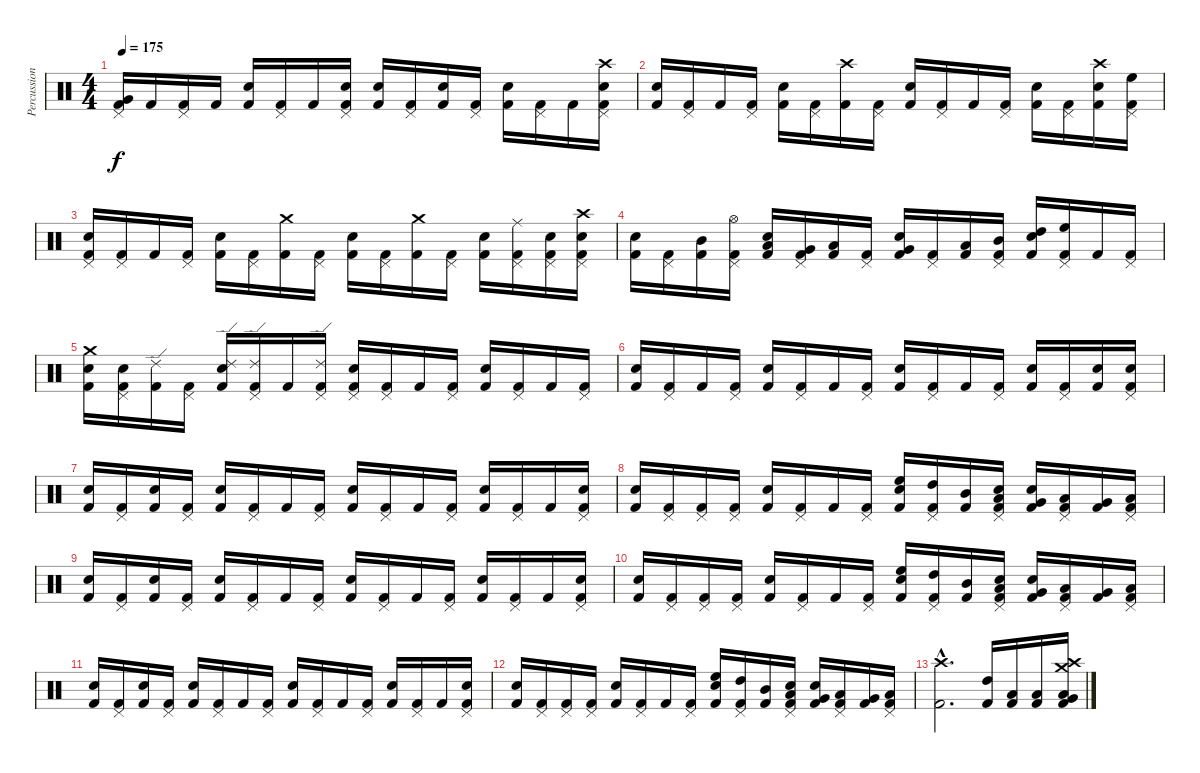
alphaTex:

\track ("Percussion" "Percussion") {instrument percussion}
\staff {score}
\articulation defaults
\ts (4 4)
\tempo 175
\clef neutral
\ks c
("Very Low Tom (hit)" "Pedal Hi-Hat (hit)" "Kick (hit) 2").16{dy f} "Kick (hit) 2".16 ("Pedal Hi-Hat (hit)" "Kick (hit) 2").16 "Kick (hit) 2".16 ("Snare (hit) 2" "Kick (hit) 2").16 ("Pedal Hi-Hat (hit)" "Kick (hit) 2").16 "Kick (hit) 2".16 ("Pedal Hi-Hat (hit)" "Snare (hit) 2" "Kick (hit) 2").16 ("Snare (hit) 2" "Kick (hit) 2").16 ("Pedal Hi-Hat (hit)" "Kick (hit) 2").16 ("Snare (hit) 2" "Kick (hit) 2").16 ("Pedal Hi-Hat (hit)" "Kick (hit) 2").16 ("Snare (hit) 2" "Kick (hit) 2").16 ("Pedal Hi-Hat (hit)" "Kick (hit) 2").16 "Kick (hit) 2".16 ("Crash high (hit)" "Pedal Hi-Hat (hit)" "Snare (hit) 2" "Kick (hit) 2").16 |
("Snare (hit) 2" "Kick (hit) 2").16 ("Pedal Hi-Hat (hit)" "Kick (hit) 2").16 "Kick (hit) 2".16 ("Pedal Hi-Hat (hit)" "Kick (hit) 2").16 ("Snare (hit) 2" "Kick (hit) 2").16 ("Pedal Hi-Hat (hit)" "Kick (hit) 2").16 ("Crash high (hit)" "Kick (hit) 2").16 ("Pedal Hi-Hat (hit)" "Kick (hit) 2").16 ("Snare (hit) 2" "Kick (hit) 2").16 ("Pedal Hi-Hat (hit)" "Kick (hit) 2").16 "Kick (hit) 2".16 ("Pedal Hi-Hat (hit)" "Kick (hit) 2").16 ("Snare (hit) 2" "Kick (hit) 2").16 ("Pedal Hi-Hat (hit)" "Kick (hit) 2").16 ("Crash high (hit)" "Snare (hit) 2" "Kick (hit) 2").16 ("High Floor Tom (hit)" "Pedal Hi-Hat (hit)" "Kick (hit) 2").16 |
("Pedal Hi-Hat (hit)" "Snare (hit) 2" "Kick (hit) 2").16 ("Pedal Hi-Hat (hit)" "Kick (hit) 2").16 "Kick (hit) 2".16 ("Pedal Hi-Hat (hit)" "Kick (hit) 2").16 ("Snare (hit) 2" "Kick (hit) 2").16 ("Pedal Hi-Hat (hit)" "Kick (hit) 2").16 ("Crash medium (hit)" "Kick (hit) 2").16 ("Pedal Hi-Hat (hit)" "Kick (hit) 2").16 ("Snare (hit) 2" "Kick (hit) 2").16 ("Pedal Hi-Hat (hit)" "Kick (hit) 2").16 ("Crash medium (hit)" "Kick (hit) 2").16 ("Pedal Hi-Hat (hit)" "Kick (hit) 2").16 ("Snare (hit) 2" "Kick (hit) 2").16 ("Ride (middle)" "Pedal Hi-Hat (hit)" "Kick (hit) 2").16 ("Pedal Hi-Hat (hit)" "Snare (hit) 2" "Kick (hit) 2").16 ("Crash high (hit)" "Pedal Hi-Hat (hit)" "Snare (hit) 2" "Kick (hit) 2").16 |
("Snare (hit) 2" "Kick (hit) 2").16 ("Pedal Hi-Hat (hit)" "Kick (hit) 2").16 ("Mid Tom (hit)" "Kick (hit) 2").16 ("Hi-Hat (open)" "Pedal Hi-Hat (hit)" "Kick (hit) 2").16 ("Low Tom (hit)" "Snare (hit) 2" "Kick (hit) 2").16 ("Very Low Tom (hit)" "Pedal Hi-Hat (hit)" "Kick (hit) 2").16 ("Low Floor Tom (hit)" "Kick (hit) 2").16 ("Pedal Hi-Hat (hit)" "Kick (hit) 2").16 ("Very Low Tom (hit)" "Snare (hit) 2" "Kick (hit) 2").16 ("Pedal Hi-Hat (hit)" "Kick (hit) 2").16 ("Low Tom (hit)" "Kick (hit) 2").16 ("Mid Tom (hit)" "Pedal Hi-Hat (hit)" "Kick (hit) 2").16 ("High Tom (hit)" "Snare (hit) 2" "Kick (hit) 2").16 ("High Floor Tom (hit)" "Pedal Hi-Hat (hit)" "Kick (hit) 2").16 "Kick (hit) 2".16 ("Pedal Hi-Hat (hit)" "Kick (hit) 2").16 |
("Crash medium (hit)" "Snare (hit) 2" "Kick (hit) 2").16 ("Pedal Hi-Hat (hit)" "Snare (hit) 2" "Kick (hit) 2").16 ("Ride (edge) 2" "Kick (hit) 2").16 ("Pedal Hi-Hat (hit)" "Kick (hit) 2").16 ("Ride (edge) 2" "Snare (hit) 2" "Kick (hit) 2").16 ("Ride (edge) 2" "Pedal Hi-Hat (hit)" "Kick (hit) 2").16 "Kick (hit) 2".16 ("Ride (edge) 2" "Pedal Hi-Hat (hit)" "Kick (hit) 2").16 ("Pedal Hi-Hat (hit)" "Snare (hit) 2" "Kick (hit) 2").16 ("Pedal Hi-Hat (hit)" "Kick (hit) 2").16 "Kick (hit) 2".16 ("Pedal Hi-Hat (hit)" "Kick (hit) 2").16 ("Snare (hit) 2" "Kick (hit) 2").16 ("Pedal Hi-Hat (hit)" "Kick (hit) 2").16 "Kick (hit) 2".16 ("Pedal Hi-Hat (hit)" "Kick (hit) 2").16 |
("Snare (hit) 2" "Kick (hit) 2").16 ("Pedal Hi-Hat (hit)" "Kick (hit) 2").16 "Kick (hit) 2".16 ("Pedal Hi-Hat (hit)" "Kick (hit) 2").16 ("Snare (hit) 2" "Kick (hit) 2").16 ("Pedal Hi-Hat (hit)" "Kick (hit) 2").16 "Kick (hit) 2".16 ("Pedal Hi-Hat (hit)" "Kick (hit) 2").16 ("Snare (hit) 2" "Kick (hit) 2").16 ("Pedal Hi-Hat (hit)" "Kick (hit) 2").16 "Kick (hit) 2".16 ("Pedal Hi-Hat (hit)" "Kick (hit) 2").16 ("Snare (hit) 2" "Kick (hit) 2").16 ("Pedal Hi-Hat (hit)" "Kick (hit) 2").16 ("Snare (hit) 2" "Kick (hit) 2").16 ("Pedal Hi-Hat (hit)" "Snare (hit) 2" "Kick (hit) 2").16 |
("Snare (hit) 2" "Kick (hit) 2").16 ("Pedal Hi-Hat (hit)" "Kick (hit) 2").16 ("Snare (hit) 2" "Kick (hit) 2").16 ("Pedal Hi-Hat (hit)" "Kick (hit) 2").16 ("Snare (hit) 2" "Kick (hit) 2").16 ("Pedal Hi-Hat (hit)" "Kick (hit) 2").16 "Kick (hit) 2".16 ("Pedal Hi-Hat (hit)" "Kick (hit) 2").16 ("Snare (hit) 2" "Kick (hit) 2").16 ("Pedal Hi-Hat (hit)" "Kick (hit) 2").16 "Kick (hit) 2".16 ("Pedal Hi-Hat (hit)" "Kick (hit) 2").16 ("Snare (hit) 2" "Kick (hit) 2").16 ("Pedal Hi-Hat (hit)" "Kick (hit) 2").16 "Kick (hit) 2".16 ("Pedal Hi-Hat (hit)" "Snare (hit) 2" "Kick (hit) 2").16 |
("Snare (hit) 2" "Kick (hit) 2").16 ("Pedal Hi-Hat (hit)" "Kick (hit) 2").16 ("Pedal Hi-Hat (hit)" "Kick (hit) 2").16 ("Pedal Hi-Hat (hit)" "Kick (hit) 2").16 ("Snare (hit) 2" "Kick (hit) 2").16 ("Pedal Hi-Hat (hit)" "Kick (hit) 2").16 "Kick (hit) 2".16 ("Pedal Hi-Hat (hit)" "Kick (hit) 2").16 ("High Floor Tom (hit)" "Snare (hit) 2" "Kick (hit) 2").16 ("High Tom (hit)" "Pedal Hi-Hat (hit)" "Kick (hit) 2").16 ("Mid Tom (hit)" "Kick (hit) 2").16 ("Low Tom (hit)" "Pedal Hi-Hat (hit)" "Snare (hit) 2" "Kick (hit) 2").16 ("Very Low Tom (hit)" "Snare (hit) 2" "Kick (hit) 2").16 ("Low Floor Tom (hit)" "Pedal Hi-Hat (hit)" "Kick (hit) 2").16 ("Very Low Tom (hit)" "Kick (hit) 2").16 ("Low Tom (hit)" "Pedal Hi-Hat (hit)" "Kick (hit) 2").16 |
("Snare (hit) 2" "Kick (hit) 2").16 ("Pedal Hi-Hat (hit)" "Kick (hit) 2").16 ("Snare (hit) 2" "Kick (hit) 2").16 ("Pedal Hi-Hat (hit)" "Kick (hit) 2").16 ("Snare (hit) 2" "Kick (hit) 2").16 ("Pedal Hi-Hat (hit)" "Kick (hit) 2").16 "Kick (hit) 2".16 ("Pedal Hi-Hat (hit)" "Kick (hit) 2").16 ("Snare (hit) 2" "Kick (hit) 2").16 ("Pedal Hi-Hat (hit)" "Kick (hit) 2").16 "Kick (hit) 2".16 ("Pedal Hi-Hat (hit)" "Kick (hit) 2").16 ("Snare (hit) 2" "Kick (hit) 2").16 ("Pedal Hi-Hat (hit)" "Kick (hit) 2").16 "Kick (hit) 2".16 ("Pedal Hi-Hat (hit)" "Snare (hit) 2" "Kick (hit) 2").16 |
("Snare (hit) 2" "Kick (hit) 2").16 ("Pedal Hi-Hat (hit)" "Kick (hit) 2").16 ("Pedal Hi-Hat (hit)" "Kick (hit) 2").16 ("Pedal Hi-Hat (hit)" "Kick (hit) 2").16 ("Snare (hit) 2" "Kick (hit) 2").16 ("Pedal Hi-Hat (hit)" "Kick (hit) 2").16 "Kick (hit) 2".16 ("Pedal Hi-Hat (hit)" "Kick (hit) 2").16 ("High Floor Tom (hit)" "Snare (hit) 2" "Kick (hit) 2").16 ("High Tom (hit)" "Pedal Hi-Hat (hit)" "Kick (hit) 2").16 ("Mid Tom (hit)" "Kick (hit) 2").16 ("Low Tom (hit)" "Pedal Hi-Hat (hit)" "Snare (hit) 2" "Kick (hit) 2").16 ("Very Low Tom (hit)" "Snare (hit) 2" "Kick (hit) 2").16 ("Low Floor Tom (hit)" "Pedal Hi-Hat (hit)" "Kick (hit) 2").16 ("Very Low Tom (hit)" "Kick (hit) 2").16 ("Low Tom (hit)" "Pedal Hi-Hat (hit)" "Kick (hit) 2").16 |
("Snare (hit) 2" "Kick (hit) 2").16 ("Pedal Hi-Hat (hit)" "Kick (hit) 2").16 ("Snare (hit) 2" "Kick (hit) 2").16 ("Pedal Hi-Hat (hit)" "Kick (hit) 2").16 ("Snare (hit) 2" "Kick (hit) 2").16 ("Pedal Hi-Hat (hit)" "Kick (hit) 2").16 "Kick (hit) 2".16 ("Pedal Hi-Hat (hit)" "Kick (hit) 2").16 ("Snare (hit) 2" "Kick (hit) 2").16 ("Pedal Hi-Hat (hit)" "Kick (hit) 2").16 "Kick (hit) 2".16 ("Pedal Hi-Hat (hit)" "Kick (hit) 2").16 ("Snare (hit) 2" "Kick (hit) 2").16 ("Pedal Hi-Hat (hit)" "Kick (hit) 2").16 "Kick (hit) 2".16 ("Pedal Hi-Hat (hit)" "Snare (hit) 2" "Kick (hit) 2").16 |
("Snare (hit) 2" "Kick (hit) 2").16 ("Pedal Hi-Hat (hit)" "Kick (hit) 2").16 ("Pedal Hi-Hat (hit)" "Kick (hit) 2").16 ("Pedal Hi-Hat (hit)" "Kick (hit) 2").16 ("Snare (hit) 2" "Kick (hit) 2").16 ("Pedal Hi-Hat (hit)" "Kick (hit) 2").16 "Kick (hit) 2".16 ("Pedal Hi-Hat (hit)" "Kick (hit) 2").16 ("High Floor Tom (hit)" "Snare (hit) 2" "Kick (hit) 2").16 ("High Tom (hit)" "Pedal Hi-Hat (hit)" "Kick (hit) 2").16 ("Mid Tom (hit)" "Kick (hit) 2").16 ("Low Tom (hit)" "Pedal Hi-Hat (hit)" "Snare (hit) 2" "Kick (hit) 2").16 ("Very Low Tom (hit)" "Snare (hit) 2" "Kick (hit) 2").16 ("Low Floor Tom (hit)" "Pedal Hi-Hat (hit)" "Kick (hit) 2").16 ("Very Low Tom (hit)" "Kick (hit) 2").16 ("Low Tom (hit)" "Pedal Hi-Hat (hit)" "Kick (hit) 2").16 |
("Crash high (hit)"{hac} "Kick (hit) 2"{hac}).2{d} ("High Tom (hit)" "Kick (hit) 2").16 ("Low Tom (hit)" "Kick (hit) 2").16 ("Low Floor Tom (hit)" "Kick (hit) 2").16 ("Crash medium (hit)" "Crash high (hit)" "Very Low Tom (hit)" "Low Floor Tom (hit)" "Kick (hit) 2").16
